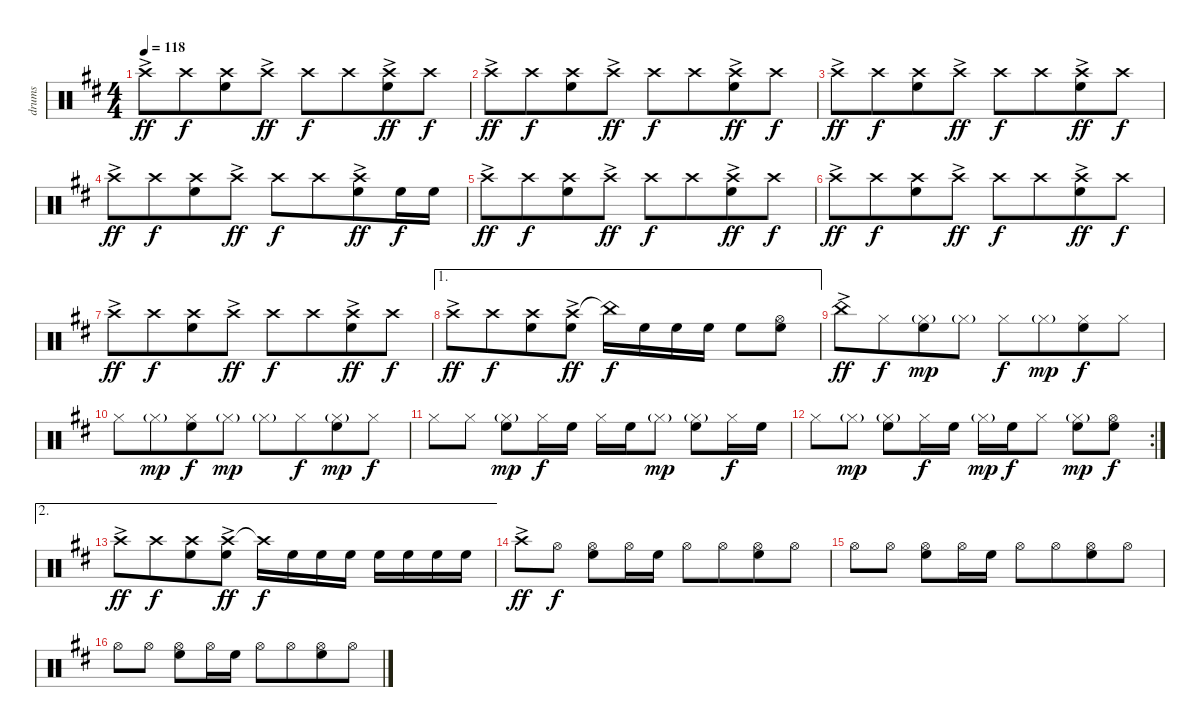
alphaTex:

\track ("drums" "drums") {instrument percussion}
\staff {score}
\articulation defaults
\ts (4 4)
\tempo 118
\clef neutral
\ks d "Crash high (hit)"{ac}.8{dy ff} "Crash high (hit)".8{dy f beam merge}
("Crash high (hit)" "High Floor Tom (hit)").8 "Crash high (hit)"{ac}.8{dy ff} "Crash high (hit)".8{dy f} "Crash high (hit)".8{beam merge} ("Crash high (hit)"{ac} "High Floor Tom (hit)").8{dy ff} "Crash high (hit)".8{dy f} |
"Crash high (hit)"{ac}.8{dy ff} "Crash high (hit)".8{dy f beam merge} ("Crash high (hit)" "High Floor Tom (hit)").8 "Crash high (hit)"{ac}.8{dy ff} "Crash high (hit)".8{dy f} "Crash high (hit)".8{beam merge} ("Crash high (hit)"{ac} "High Floor Tom (hit)").8{dy ff} "Crash high (hit)".8{dy f} |
"Crash high (hit)"{ac}.8{dy ff} "Crash high (hit)".8{dy f beam merge} ("Crash high (hit)" "High Floor Tom (hit)").8 "Crash high (hit)"{ac}.8{dy ff} "Crash high (hit)".8{dy f} "Crash high (hit)".8{beam merge} ("Crash high (hit)"{ac} "High Floor Tom (hit)").8{dy ff} "Crash high (hit)".8{dy f} |
"Crash high (hit)"{ac}.8{dy ff} "Crash high (hit)".8{dy f beam merge} ("Crash high (hit)" "High Floor Tom (hit)").8 "Crash high (hit)"{ac}.8{dy ff} "Crash high (hit)".8{dy f} "Crash high (hit)".8{beam merge} ("Crash high (hit)"{ac} "High Floor Tom (hit)").8{dy ff} "High Floor Tom (hit)".16{dy f} "High Floor Tom (hit)".16 |
"Crash high (hit)"{ac}.8{dy ff} "Crash high (hit)".8{dy f beam merge} ("Crash high (hit)" "High Floor Tom (hit)").8 "Crash high (hit)"{ac}.8{dy ff} "Crash high (hit)".8{dy f} "Crash high (hit)".8{beam merge} ("Crash high (hit)"{ac} "High Floor Tom (hit)").8{dy ff} "Crash high (hit)".8{dy f} |
"Crash high (hit)"{ac}.8{dy ff} "Crash high (hit)".8{dy f beam merge} ("Crash high (hit)" "High Floor Tom (hit)").8 "Crash high (hit)"{ac}.8{dy ff} "Crash high (hit)".8{dy f} "Crash high (hit)".8{beam merge} ("Crash high (hit)"{ac} "High Floor Tom (hit)").8{dy ff} "Crash high (hit)".8{dy f} |
"Crash high (hit)"{ac}.8{dy ff} "Crash high (hit)".8{dy f beam merge} ("Crash high (hit)" "High Floor Tom (hit)").8 "Crash high (hit)"{ac}.8{dy ff} "Crash high (hit)".8{dy f} "Crash high (hit)".8{beam merge} ("Crash high (hit)"{ac} "High Floor Tom (hit)").8{dy ff} "Crash high (hit)".8{dy f} |
\ae 1 "Crash high (hit)"{ac}.8{dy ff} "Crash high (hit)".8{dy f beam merge}
("Crash high (hit)" "High Floor Tom (hit)").8 ("Crash high (hit)"{ac} "High Floor Tom (hit)").8{dy ff} "China (hit)"{t}.16{dy f} "High Floor Tom (hit)".16{beam merge} "High Floor Tom (hit)".16 "High Floor Tom (hit)".16 "High Floor Tom (hit)".8 ("Hi-Hat (open)" "High Floor Tom (hit)").8 |
"China (hit)"{ac}.8{dy ff} "Hi-Hat (closed)".8{dy f beam merge} ("Hi-Hat (closed)"{g} "High Floor Tom (hit)").8{dy mp} "Hi-Hat (closed)"{g}.8 "Hi-Hat (closed)".8{dy f} "Hi-Hat (closed)"{g}.8{dy mp beam merge} ("Hi-Hat (closed)" "High Floor Tom (hit)").8{dy f} "Hi-Hat (closed)".8 |
"Hi-Hat (closed)".8 "Hi-Hat (closed)"{g}.8{dy mp beam merge} ("Hi-Hat (closed)" "High Floor Tom (hit)").8{dy f} "Hi-Hat (closed)"{g}.8{dy mp} "Hi-Hat (closed)"{g}.8 "Hi-Hat (closed)".8{dy f beam merge} ("Hi-Hat (closed)"{g} "High Floor Tom (hit)").8{dy mp} "Hi-Hat (closed)".8{dy f} |
"Hi-Hat (closed)".8 "Hi-Hat (closed)".8 ("Hi-Hat (closed)"{g} "High Floor Tom (hit)").8{dy mp} "Hi-Hat (closed)".16{dy f} "High Floor Tom (hit)".16 "Hi-Hat (closed)".16 "High Floor Tom (hit)".16 "Hi-Hat (closed)"{g}.8{dy mp} ("Hi-Hat (closed)"{g} "High Floor Tom (hit)").8 "Hi-Hat (closed)".16{dy f} "High Floor Tom (hit)".16 |
\rc 2 "Hi-Hat (closed)".8 "Hi-Hat (closed)"{g}.8{dy mp}
("Hi-Hat (closed)"{g} "High Floor Tom (hit)").8 "Hi-Hat (closed)".16{dy f} "High Floor Tom (hit)".16 "Hi-Hat (closed)"{g}.16{dy mp} "High Floor Tom (hit)".16{dy f} "Hi-Hat (closed)".8 ("Hi-Hat (closed)"{g} "High Floor Tom (hit)").8{dy mp} ("Hi-Hat (open)" "High Floor Tom (hit)").8{dy f} |
\ae 2 "Crash high (hit)"{ac}.8{dy ff} "Crash high (hit)".8{dy f beam merge}
("Crash high (hit)" "High Floor Tom (hit)").8 ("Crash high (hit)"{ac} "High Floor Tom (hit)").8{dy ff} "Crash high (hit)"{t}.16{dy f} "High Floor Tom (hit)".16 "High Floor Tom (hit)".16 "High Floor Tom (hit)".16 "High Floor Tom (hit)".16 "High Floor Tom (hit)".16 "High Floor Tom (hit)".16 "High Floor Tom (hit)".16 |
"Crash high (hit)"{ac}.8{dy ff} "Hi-Hat (open)".8{dy f} ("Hi-Hat (open)" "High Floor Tom (hit)").8 "Hi-Hat (open)".16 "High Floor Tom (hit)".16 "Hi-Hat (open)".8 "Hi-Hat (open)".8{beam merge} ("Hi-Hat (open)" "High Floor Tom (hit)").8 "Hi-Hat (open)".8 |
"Hi-Hat (open)".8 "Hi-Hat (open)".8 ("Hi-Hat (open)" "High Floor Tom (hit)").8 "Hi-Hat (open)".16 "High Floor Tom (hit)".16 "Hi-Hat (open)".8 "Hi-Hat (open)".8{beam merge} ("Hi-Hat (open)" "High Floor Tom (hit)").8 "Hi-Hat (open)".8 |
"Hi-Hat (open)".8 "Hi-Hat (open)".8 ("Hi-Hat (open)" "High Floor Tom (hit)").8 "Hi-Hat (open)".16 "High Floor Tom (hit)".16 "Hi-Hat (open)".8 "Hi-Hat (open)".8{beam merge} ("Hi-Hat (open)" "High Floor Tom (hit)").8 "Hi-Hat (open)".8
